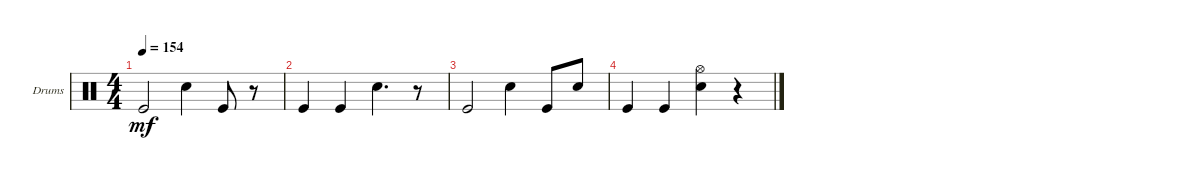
\defaultSystemsLayout 4
\bracketExtendMode groupsimilarinstruments
\firstSystemTrackNameOrientation horizontal
\otherSystemsTrackNameOrientation horizontal
\track ("Drumkit" "Drums") {instrument percussion}
\staff {score}
\articulation defaults
\ts (4 4)
\tempo 154
\clef neutral
\ks c "Kick (hit)".2{dy mf} "Snare (hit) 2".4 "Kick (hit)".8
r.8 |
"Kick (hit)".4 "Kick (hit)".4 "Snare (hit) 2".4{d} r.8 |
"Kick (hit)".2 "Snare (hit) 2".4 "Kick (hit)".8 "Snare (hit) 2".8 |
"Kick (hit)".4 "Kick (hit)".4 ("Snare (hit) 2" "Hi-Hat (open)").4 r.4
